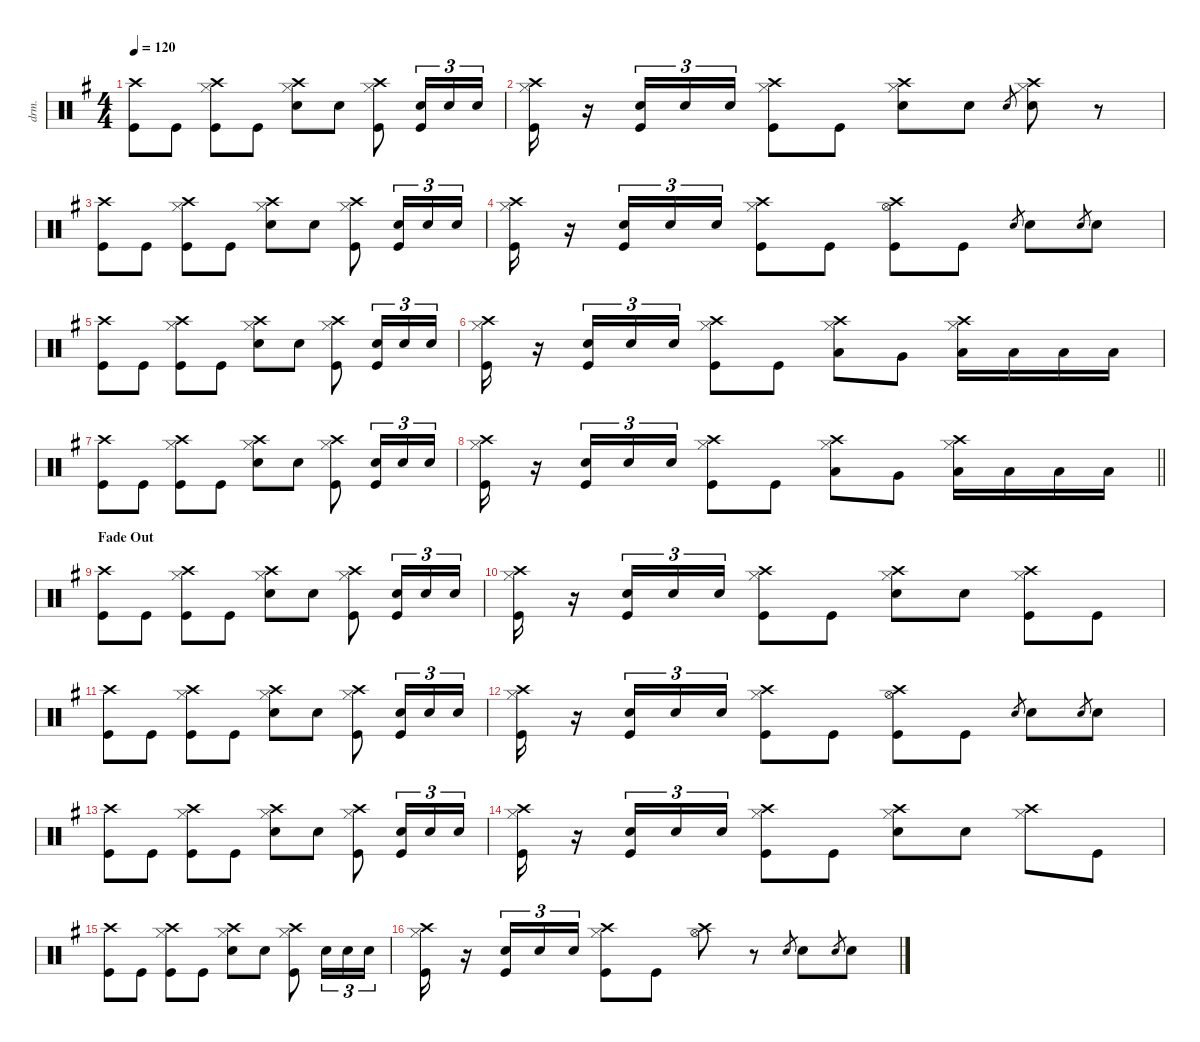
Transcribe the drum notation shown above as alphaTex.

\defaultSystemsLayout 4
\hideDynamics
\bracketExtendMode nobrackets
\track ("Drums (Bill Ward)" "drm.") {instrument percussion}
\staff {score}
\articulation defaults
\ts (4 4)
\tempo 120
\clef neutral
\ks g
("Crash high (hit)"{acc forcenatural} "Kick (hit)"{acc forcenatural}).8{dy f} "Kick (hit)"{acc forcenatural}.8 ("Crash high (hit)"{acc forcenatural} "Hi-Hat (closed)"{acc forcenatural} "Kick (hit)"{acc forcenatural}).8 "Kick (hit)"{acc forcenatural}.8 ("Crash high (hit)"{acc forcenatural} "Hi-Hat (closed)"{acc forcenatural} "Snare (hit) 2"{acc forcenatural}).8 "Snare (hit) 2"{acc forcenatural}.8 ("Crash high (hit)"{acc forcenatural} "Hi-Hat (closed)"{acc forcenatural} "Kick (hit)"{acc forcenatural}).8 ("Snare (hit) 2"{acc forcenatural} "Kick (hit)"{acc forcenatural}).16{tu (3 2) dy p} "Snare (hit) 2"{acc forcenatural}.16{tu (3 2)} "Snare (hit) 2"{acc forcenatural}.16{tu (3 2)} |
("Crash high (hit)"{acc forcenatural} "Hi-Hat (closed)"{acc forcenatural} "Kick (hit)"{acc forcenatural}).16{dy f} r.16 ("Snare (hit) 2"{acc forcenatural} "Kick (hit)"{acc forcenatural}).16{tu (3 2) dy p} "Snare (hit) 2"{acc forcenatural}.16{tu (3 2)} "Snare (hit) 2"{acc forcenatural}.16{tu (3 2)} ("Crash high (hit)"{acc forcenatural} "Hi-Hat (closed)"{acc forcenatural} "Kick (hit)"{acc forcenatural}).8{dy f} "Kick (hit)"{acc forcenatural}.8 ("Crash high (hit)"{acc forcenatural} "Hi-Hat (closed)"{acc forcenatural} "Snare (hit) 2"{acc forcenatural}).8 "Snare (hit) 2"{acc forcenatural}.8 "Electric Snare (hit)"{acc forcenatural}.8{gr dy mf} ("Crash high (hit)"{acc forcenatural} "Hi-Hat (closed)"{acc forcenatural} "Snare (hit) 2"{acc forcenatural}).8{dy f} r.8 |
("Crash high (hit)"{acc forcenatural} "Kick (hit)"{acc forcenatural}).8 "Kick (hit)"{acc forcenatural}.8 ("Crash high (hit)"{acc forcenatural} "Hi-Hat (closed)"{acc forcenatural} "Kick (hit)"{acc forcenatural}).8 "Kick (hit)"{acc forcenatural}.8 ("Crash high (hit)"{acc forcenatural} "Hi-Hat (closed)"{acc forcenatural} "Snare (hit) 2"{acc forcenatural}).8 "Snare (hit) 2"{acc forcenatural}.8 ("Crash high (hit)"{acc forcenatural} "Hi-Hat (closed)"{acc forcenatural} "Kick (hit)"{acc forcenatural}).8 ("Snare (hit) 2"{acc forcenatural} "Kick (hit)"{acc forcenatural}).16{tu (3 2) dy p} "Snare (hit) 2"{acc forcenatural}.16{tu (3 2)} "Snare (hit) 2"{acc forcenatural}.16{tu (3 2)} |
("Crash high (hit)"{acc forcenatural} "Hi-Hat (closed)"{acc forcenatural} "Kick (hit)"{acc forcenatural}).16{dy f} r.16 ("Snare (hit) 2"{acc forcenatural} "Kick (hit)"{acc forcenatural}).16{tu (3 2) dy p} "Snare (hit) 2"{acc forcenatural}.16{tu (3 2)} "Snare (hit) 2"{acc forcenatural}.16{tu (3 2)} ("Crash high (hit)"{acc forcenatural} "Hi-Hat (closed)"{acc forcenatural} "Kick (hit)"{acc forcenatural}).8{dy f} "Kick (hit)"{acc forcenatural}.8 ("Crash high (hit)"{acc forcenatural} "Hi-Hat (open)"{acc forcenatural} "Kick (hit)"{acc forcenatural}).8 "Kick (hit)"{acc forcenatural}.8 "Electric Snare (hit)"{acc forcenatural}.8{gr dy mf} "Snare (hit) 2"{acc forcenatural}.8{dy f} "Electric Snare (hit)"{acc forcenatural}.8{gr dy mf} "Snare (hit) 2"{acc forcenatural}.8{dy f} |
("Crash high (hit)"{acc forcenatural} "Kick (hit)"{acc forcenatural}).8 "Kick (hit)"{acc forcenatural}.8 ("Crash high (hit)"{acc forcenatural} "Hi-Hat (closed)"{acc forcenatural} "Kick (hit)"{acc forcenatural}).8 "Kick (hit)"{acc forcenatural}.8 ("Crash high (hit)"{acc forcenatural} "Hi-Hat (closed)"{acc forcenatural} "Snare (hit) 2"{acc forcenatural}).8 "Snare (hit) 2"{acc forcenatural}.8 ("Crash high (hit)"{acc forcenatural} "Hi-Hat (closed)"{acc forcenatural} "Kick (hit)"{acc forcenatural}).8 ("Snare (hit) 2"{acc forcenatural} "Kick (hit)"{acc forcenatural}).16{tu (3 2) dy p} "Snare (hit) 2"{acc forcenatural}.16{tu (3 2)} "Snare (hit) 2"{acc forcenatural}.16{tu (3 2)} |
("Crash high (hit)"{acc forcenatural} "Hi-Hat (closed)"{acc forcenatural} "Kick (hit)"{acc forcenatural}).16{dy f} r.16 ("Snare (hit) 2"{acc forcenatural} "Kick (hit)"{acc forcenatural}).16{tu (3 2) dy p} "Snare (hit) 2"{acc forcenatural}.16{tu (3 2)} "Snare (hit) 2"{acc forcenatural}.16{tu (3 2)} ("Crash high (hit)"{acc forcenatural} "Hi-Hat (closed)"{acc forcenatural} "Kick (hit)"{acc forcenatural}).8{dy f} "Kick (hit)"{acc forcenatural}.8 ("Crash high (hit)"{acc forcenatural} "Hi-Hat (closed)"{acc forcenatural} "Low Tom (hit)"{acc forcenatural}).8 "Very Low Tom (hit)"{acc forcenatural}.8 ("Crash high (hit)"{acc forcenatural} "Hi-Hat (closed)"{acc forcenatural} "Low Floor Tom (hit)"{acc forcenatural}).16 "Low Floor Tom (hit)"{acc forcenatural}.16 "Low Floor Tom (hit)"{acc forcenatural}.16 "Low Floor Tom (hit)"{acc forcenatural}.16 |
("Crash high (hit)"{acc forcenatural} "Kick (hit)"{acc forcenatural}).8 "Kick (hit)"{acc forcenatural}.8 ("Crash high (hit)"{acc forcenatural} "Hi-Hat (closed)"{acc forcenatural} "Kick (hit)"{acc forcenatural}).8 "Kick (hit)"{acc forcenatural}.8 ("Crash high (hit)"{acc forcenatural} "Hi-Hat (closed)"{acc forcenatural} "Snare (hit) 2"{acc forcenatural}).8 "Snare (hit) 2"{acc forcenatural}.8 ("Crash high (hit)"{acc forcenatural} "Hi-Hat (closed)"{acc forcenatural} "Kick (hit)"{acc forcenatural}).8 ("Snare (hit) 2"{acc forcenatural} "Kick (hit)"{acc forcenatural}).16{tu (3 2) dy p} "Snare (hit) 2"{acc forcenatural}.16{tu (3 2)} "Snare (hit) 2"{acc forcenatural}.16{tu (3 2)} |
\barLineRight lightlight
("Crash high (hit)"{acc forcenatural} "Hi-Hat (closed)"{acc forcenatural} "Kick (hit)"{acc forcenatural}).16{dy f} r.16 ("Snare (hit) 2"{acc forcenatural} "Kick (hit)"{acc forcenatural}).16{tu (3 2) dy p} "Snare (hit) 2"{acc forcenatural}.16{tu (3 2)} "Snare (hit) 2"{acc forcenatural}.16{tu (3 2)} ("Crash high (hit)"{acc forcenatural} "Hi-Hat (closed)"{acc forcenatural} "Kick (hit)"{acc forcenatural}).8{dy f} "Kick (hit)"{acc forcenatural}.8 ("Crash high (hit)"{acc forcenatural} "Hi-Hat (closed)"{acc forcenatural} "Low Tom (hit)"{acc forcenatural}).8 "Very Low Tom (hit)"{acc forcenatural}.8 ("Crash high (hit)"{acc forcenatural} "Hi-Hat (closed)"{acc forcenatural} "Low Floor Tom (hit)"{acc forcenatural}).16 "Low Floor Tom (hit)"{acc forcenatural}.16 "Low Floor Tom (hit)"{acc forcenatural}.16 "Low Floor Tom (hit)"{acc forcenatural}.16 |
\section ("" "Fade Out")
("Crash high (hit)"{acc forcenatural} "Kick (hit)"{acc forcenatural}).8 "Kick (hit)"{acc forcenatural}.8 ("Crash high (hit)"{acc forcenatural} "Hi-Hat (closed)"{acc forcenatural} "Kick (hit)"{acc forcenatural}).8 "Kick (hit)"{acc forcenatural}.8 ("Crash high (hit)"{acc forcenatural} "Hi-Hat (closed)"{acc forcenatural} "Snare (hit) 2"{acc forcenatural}).8 "Snare (hit) 2"{acc forcenatural}.8 ("Crash high (hit)"{acc forcenatural} "Hi-Hat (closed)"{acc forcenatural} "Kick (hit)"{acc forcenatural}).8 ("Snare (hit) 2"{acc forcenatural} "Kick (hit)"{acc forcenatural}).16{tu (3 2) dy p} "Snare (hit) 2"{acc forcenatural}.16{tu (3 2)} "Snare (hit) 2"{acc forcenatural}.16{tu (3 2)} |
("Crash high (hit)"{acc forcenatural} "Hi-Hat (closed)"{acc forcenatural} "Kick (hit)"{acc forcenatural}).16{dy f} r.16 ("Snare (hit) 2"{acc forcenatural} "Kick (hit)"{acc forcenatural}).16{tu (3 2) dy p} "Snare (hit) 2"{acc forcenatural}.16{tu (3 2)} "Snare (hit) 2"{acc forcenatural}.16{tu (3 2)} ("Crash high (hit)"{acc forcenatural} "Hi-Hat (closed)"{acc forcenatural} "Kick (hit)"{acc forcenatural}).8{dy f} "Kick (hit)"{acc forcenatural}.8 ("Crash high (hit)"{acc forcenatural} "Hi-Hat (closed)"{acc forcenatural} "Snare (hit) 2"{acc forcenatural}).8 "Snare (hit) 2"{acc forcenatural}.8 ("Crash high (hit)"{acc forcenatural} "Hi-Hat (closed)"{acc forcenatural} "Kick (hit)"{acc forcenatural}).8 "Kick (hit)"{acc forcenatural}.8 |
("Crash high (hit)"{acc forcenatural} "Kick (hit)"{acc forcenatural}).8 "Kick (hit)"{acc forcenatural}.8 ("Crash high (hit)"{acc forcenatural} "Hi-Hat (closed)"{acc forcenatural} "Kick (hit)"{acc forcenatural}).8 "Kick (hit)"{acc forcenatural}.8 ("Crash high (hit)"{acc forcenatural} "Hi-Hat (closed)"{acc forcenatural} "Snare (hit) 2"{acc forcenatural}).8 "Snare (hit) 2"{acc forcenatural}.8 ("Crash high (hit)"{acc forcenatural} "Hi-Hat (closed)"{acc forcenatural} "Kick (hit)"{acc forcenatural}).8 ("Snare (hit) 2"{acc forcenatural} "Kick (hit)"{acc forcenatural}).16{tu (3 2) dy p} "Snare (hit) 2"{acc forcenatural}.16{tu (3 2)} "Snare (hit) 2"{acc forcenatural}.16{tu (3 2)} |
("Crash high (hit)"{acc forcenatural} "Hi-Hat (closed)"{acc forcenatural} "Kick (hit)"{acc forcenatural}).16{dy f} r.16 ("Snare (hit) 2"{acc forcenatural} "Kick (hit)"{acc forcenatural}).16{tu (3 2) dy p} "Snare (hit) 2"{acc forcenatural}.16{tu (3 2)} "Snare (hit) 2"{acc forcenatural}.16{tu (3 2)} ("Crash high (hit)"{acc forcenatural} "Hi-Hat (closed)"{acc forcenatural} "Kick (hit)"{acc forcenatural}).8{dy f} "Kick (hit)"{acc forcenatural}.8 ("Crash high (hit)"{acc forcenatural} "Hi-Hat (open)"{acc forcenatural} "Kick (hit)"{acc forcenatural}).8 "Kick (hit)"{acc forcenatural}.8 "Electric Snare (hit)"{acc forcenatural}.8{gr dy mf} "Snare (hit) 2"{acc forcenatural}.8{dy f} "Electric Snare (hit)"{acc forcenatural}.8{gr dy mf} "Snare (hit) 2"{acc forcenatural}.8{dy f} |
("Crash high (hit)"{acc forcenatural} "Kick (hit)"{acc forcenatural}).8 "Kick (hit)"{acc forcenatural}.8 ("Crash high (hit)"{acc forcenatural} "Hi-Hat (closed)"{acc forcenatural} "Kick (hit)"{acc forcenatural}).8 "Kick (hit)"{acc forcenatural}.8 ("Crash high (hit)"{acc forcenatural} "Hi-Hat (closed)"{acc forcenatural} "Snare (hit) 2"{acc forcenatural}).8 "Snare (hit) 2"{acc forcenatural}.8 ("Crash high (hit)"{acc forcenatural} "Hi-Hat (closed)"{acc forcenatural} "Kick (hit)"{acc forcenatural}).8 ("Snare (hit) 2"{acc forcenatural} "Kick (hit)"{acc forcenatural}).16{tu (3 2) dy p} "Snare (hit) 2"{acc forcenatural}.16{tu (3 2)} "Snare (hit) 2"{acc forcenatural}.16{tu (3 2)} |
("Crash high (hit)"{acc forcenatural} "Hi-Hat (closed)"{acc forcenatural} "Kick (hit)"{acc forcenatural}).16{dy f} r.16 ("Snare (hit) 2"{acc forcenatural} "Kick (hit)"{acc forcenatural}).16{tu (3 2) dy p} "Snare (hit) 2"{acc forcenatural}.16{tu (3 2)} "Snare (hit) 2"{acc forcenatural}.16{tu (3 2)} ("Crash high (hit)"{acc forcenatural} "Hi-Hat (closed)"{acc forcenatural} "Kick (hit)"{acc forcenatural}).8{dy f} "Kick (hit)"{acc forcenatural}.8 ("Crash high (hit)"{acc forcenatural} "Hi-Hat (closed)"{acc forcenatural} "Snare (hit) 2"{acc forcenatural}).8 "Snare (hit) 2"{acc forcenatural}.8 ("Crash high (hit)"{acc forcenatural} "Hi-Hat (closed)"{acc forcenatural}).8 "Kick (hit)"{acc forcenatural}.8 |
("Crash high (hit)"{acc forcenatural} "Kick (hit)"{acc forcenatural}).8 "Kick (hit)"{acc forcenatural}.8 ("Crash high (hit)"{acc forcenatural} "Hi-Hat (closed)"{acc forcenatural} "Kick (hit)"{acc forcenatural}).8 "Kick (hit)"{acc forcenatural}.8 ("Crash high (hit)"{acc forcenatural} "Hi-Hat (closed)"{acc forcenatural} "Snare (hit) 2"{acc forcenatural}).8 "Snare (hit) 2"{acc forcenatural}.8 ("Crash high (hit)"{acc forcenatural} "Hi-Hat (closed)"{acc forcenatural} "Kick (hit)"{acc forcenatural}).8 "Snare (hit) 2"{acc forcenatural}.16{tu (3 2) dy p} "Snare (hit) 2"{acc forcenatural}.16{tu (3 2)} "Snare (hit) 2"{acc forcenatural}.16{tu (3 2)} |
("Crash high (hit)"{acc forcenatural} "Hi-Hat (closed)"{acc forcenatural} "Kick (hit)"{acc forcenatural}).16{dy f} r.16 ("Snare (hit) 2"{acc forcenatural} "Kick (hit)"{acc forcenatural}).16{tu (3 2) dy p} "Snare (hit) 2"{acc forcenatural}.16{tu (3 2)} "Snare (hit) 2"{acc forcenatural}.16{tu (3 2)} ("Crash high (hit)"{acc forcenatural} "Hi-Hat (closed)"{acc forcenatural} "Kick (hit)"{acc forcenatural}).8{dy f} "Kick (hit)"{acc forcenatural}.8 ("Crash high (hit)"{acc forcenatural} "Hi-Hat (open)"{acc forcenatural}).8 r.8 "Electric Snare (hit)"{acc forcenatural}.8{gr dy mf} "Snare (hit) 2"{acc forcenatural}.8{dy f} "Electric Snare (hit)"{acc forcenatural}.8{gr dy mf} "Snare (hit) 2"{acc forcenatural}.8{dy f}
